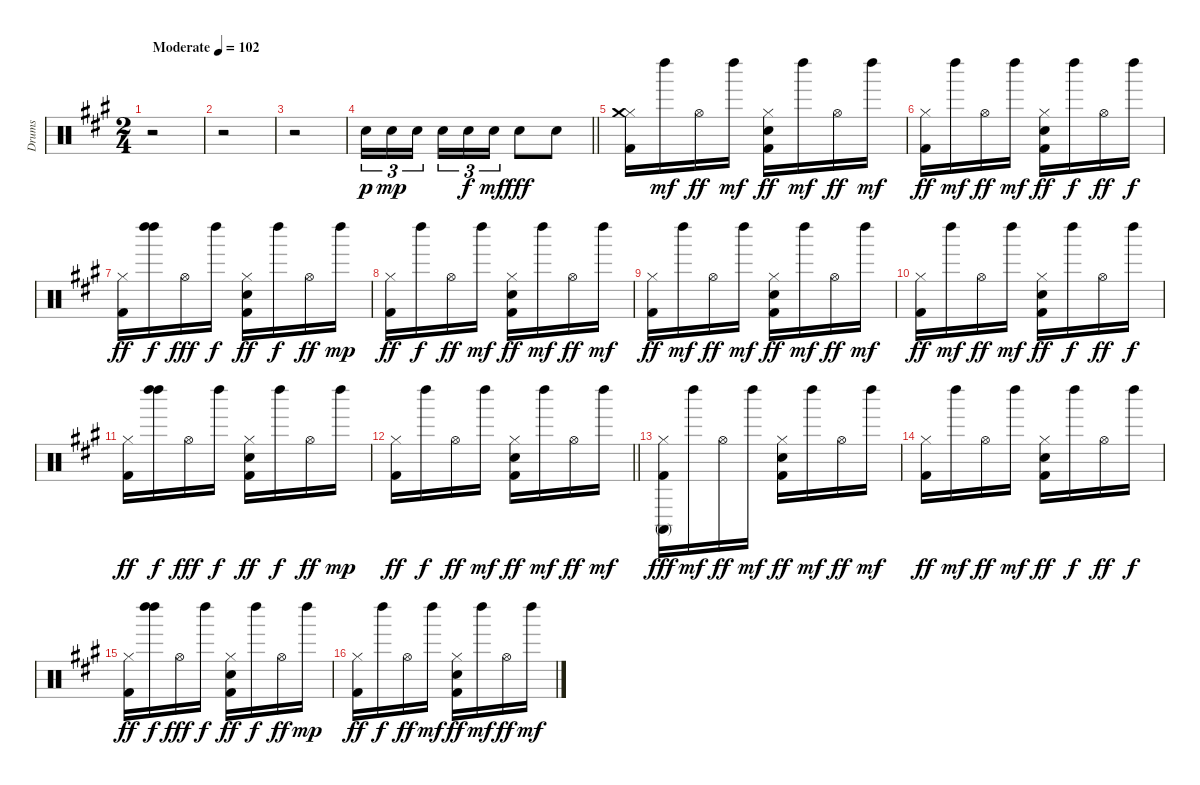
\track ("Drums" "Drums") {instrument percussion}
\staff {score}
\articulation defaults
\ts (2 4)
\tempo (102 "Moderate")
\clef neutral
\ks a
r.2{dy p} |
r.2 |
r.2 |
\barLineRight lightlight "Electric Snare (hit)".16{tu (3 2)} "Electric Snare (hit)".16{tu (3 2) dy mp} "Electric Snare (hit)".16{tu (3 2) beam splitsecondary} "Electric Snare (hit)".16{tu (3 2)} "Electric Snare (hit)".16{tu (3 2) dy f} "Electric Snare (hit)".16{tu (3 2) dy mf} "Electric Snare (hit)".8{dy fff} "Electric Snare (hit)".8
|
("Kick (hit) 2" "Hi-Hat (closed)" "Crash medium (hit)").16 "Left Maraca (hit)".16{dy mf} "Hi-Hat (open)".16{dy ff} "Left Maraca (hit)".16{dy mf} ("Kick (hit) 2" "Electric Snare (hit)" "Hi-Hat (closed)").16{dy ff} "Left Maraca (hit)".16{dy mf} "Hi-Hat (open)".16{dy ff} "Left Maraca (hit)".16{dy mf} |
("Kick (hit) 2" "Hi-Hat (closed)").16{dy ff} "Left Maraca (hit)".16{dy mf} "Hi-Hat (open)".16{dy ff} "Left Maraca (hit)".16{dy mf} ("Kick (hit) 2" "Electric Snare (hit)" "Hi-Hat (closed)").16{dy ff} "Left Maraca (hit)".16{dy f} "Hi-Hat (open)".16{dy ff} "Left Maraca (hit)".16{dy f} |
("Kick (hit) 2" "Hi-Hat (closed)").16{dy ff} ("Left Maraca (hit)" "Left Maraca (hit)").16{dy f} "Hi-Hat (open)".16{dy fff} "Left Maraca (hit)".16{dy f} ("Kick (hit) 2" "Electric Snare (hit)" "Hi-Hat (closed)").16{dy ff} "Left Maraca (hit)".16{dy f} "Hi-Hat (open)".16{dy ff} "Left Maraca (hit)".16{dy mp} |
("Kick (hit) 2" "Hi-Hat (closed)").16{dy ff} "Left Maraca (hit)".16{dy f} "Hi-Hat (open)".16{dy ff} "Left Maraca (hit)".16{dy mf} ("Kick (hit) 2" "Electric Snare (hit)" "Hi-Hat (closed)").16{dy ff} "Left Maraca (hit)".16{dy mf} "Hi-Hat (open)".16{dy ff} "Left Maraca (hit)".16{dy mf} |
("Kick (hit) 2" "Hi-Hat (closed)").16{dy ff} "Left Maraca (hit)".16{dy mf} "Hi-Hat (open)".16{dy ff} "Left Maraca (hit)".16{dy mf} ("Kick (hit) 2" "Electric Snare (hit)" "Hi-Hat (closed)").16{dy ff} "Left Maraca (hit)".16{dy mf} "Hi-Hat (open)".16{dy ff} "Left Maraca (hit)".16{dy mf} |
("Kick (hit) 2" "Hi-Hat (closed)").16{dy ff} "Left Maraca (hit)".16{dy mf} "Hi-Hat (open)".16{dy ff} "Left Maraca (hit)".16{dy mf} ("Kick (hit) 2" "Electric Snare (hit)" "Hi-Hat (closed)").16{dy ff} "Left Maraca (hit)".16{dy f} "Hi-Hat (open)".16{dy ff} "Left Maraca (hit)".16{dy f} |
("Kick (hit) 2" "Hi-Hat (closed)").16{dy ff} ("Left Maraca (hit)" "Left Maraca (hit)").16{dy f} "Hi-Hat (open)".16{dy fff} "Left Maraca (hit)".16{dy f} ("Kick (hit) 2" "Electric Snare (hit)" "Hi-Hat (closed)").16{dy ff} "Left Maraca (hit)".16{dy f} "Hi-Hat (open)".16{dy ff} "Left Maraca (hit)".16{dy mp} |
\barLineRight lightlight
("Kick (hit) 2" "Hi-Hat (closed)").16{dy ff} "Left Maraca (hit)".16{dy f} "Hi-Hat (open)".16{dy ff} "Left Maraca (hit)".16{dy mf} ("Kick (hit) 2" "Electric Snare (hit)" "Hi-Hat (closed)").16{dy ff} "Left Maraca (hit)".16{dy mf} "Hi-Hat (open)".16{dy ff} "Left Maraca (hit)".16{dy mf} |
("Kick (hit) 2" "Hi-Hat (closed)" "Conga high (mute)").16{dy fff} "Left Maraca (hit)".16{dy mf} "Hi-Hat (open)".16{dy ff} "Left Maraca (hit)".16{dy mf} ("Kick (hit) 2" "Electric Snare (hit)" "Hi-Hat (closed)").16{dy ff} "Left Maraca (hit)".16{dy mf} "Hi-Hat (open)".16{dy ff} "Left Maraca (hit)".16{dy mf} |
("Kick (hit) 2" "Hi-Hat (closed)").16{dy ff} "Left Maraca (hit)".16{dy mf} "Hi-Hat (open)".16{dy ff} "Left Maraca (hit)".16{dy mf} ("Kick (hit) 2" "Electric Snare (hit)" "Hi-Hat (closed)").16{dy ff} "Left Maraca (hit)".16{dy f} "Hi-Hat (open)".16{dy ff} "Left Maraca (hit)".16{dy f} |
("Kick (hit) 2" "Hi-Hat (closed)").16{dy ff} ("Left Maraca (hit)" "Left Maraca (hit)").16{dy f} "Hi-Hat (open)".16{dy fff} "Left Maraca (hit)".16{dy f} ("Kick (hit) 2" "Electric Snare (hit)" "Hi-Hat (closed)").16{dy ff} "Left Maraca (hit)".16{dy f} "Hi-Hat (open)".16{dy ff} "Left Maraca (hit)".16{dy mp} |
("Kick (hit) 2" "Hi-Hat (closed)").16{dy ff} "Left Maraca (hit)".16{dy f} "Hi-Hat (open)".16{dy ff} "Left Maraca (hit)".16{dy mf} ("Kick (hit) 2" "Electric Snare (hit)" "Hi-Hat (closed)").16{dy ff} "Left Maraca (hit)".16{dy mf} "Hi-Hat (open)".16{dy ff} "Left Maraca (hit)".16{dy mf}
